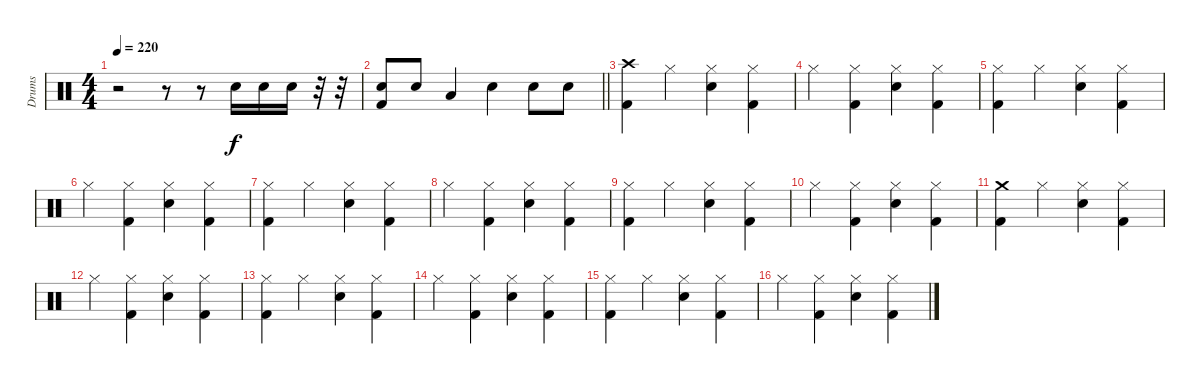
\track ("Drums" "Drums") {instrument percussion}
\staff {score}
\articulation defaults
\ts (4 4)
\tempo 220
\clef neutral
\ks c
r.2{dy f} r.8 r.8 "Electric Snare (hit)".16 "Electric Snare (hit)".16 "Electric Snare (hit)".16 r.32 r.32 |
\barLineRight lightlight
("Electric Snare (hit)" "Kick (hit) 2").8 "Electric Snare (hit)".8 "Low Tom (hit)".4 "Electric Snare (hit)".4 "Electric Snare (hit)".8 "Electric Snare (hit)".8 |
("Crash high (hit)" "Kick (hit) 2").4 "Hi-Hat (closed)".4 ("Hi-Hat (closed)" "Electric Snare (hit)").4 ("Hi-Hat (closed)" "Kick (hit) 2").4 |
"Hi-Hat (closed)".4 ("Hi-Hat (closed)" "Kick (hit) 2").4 ("Hi-Hat (closed)" "Electric Snare (hit)").4 ("Hi-Hat (closed)" "Kick (hit) 2").4 |
("Hi-Hat (closed)" "Kick (hit) 2").4 "Hi-Hat (closed)".4 ("Hi-Hat (closed)" "Electric Snare (hit)").4 ("Hi-Hat (closed)" "Kick (hit) 2").4 |
"Hi-Hat (closed)".4 ("Hi-Hat (closed)" "Kick (hit) 2").4 ("Hi-Hat (closed)" "Electric Snare (hit)").4 ("Hi-Hat (closed)" "Kick (hit) 2").4 |
("Hi-Hat (closed)" "Kick (hit) 2").4 "Hi-Hat (closed)".4 ("Hi-Hat (closed)" "Electric Snare (hit)").4 ("Hi-Hat (closed)" "Kick (hit) 2").4 |
"Hi-Hat (closed)".4 ("Hi-Hat (closed)" "Kick (hit) 2").4 ("Hi-Hat (closed)" "Electric Snare (hit)").4 ("Hi-Hat (closed)" "Kick (hit) 2").4 |
("Hi-Hat (closed)" "Kick (hit) 2").4 "Hi-Hat (closed)".4 ("Hi-Hat (closed)" "Electric Snare (hit)").4 ("Hi-Hat (closed)" "Kick (hit) 2").4 |
"Hi-Hat (closed)".4 ("Hi-Hat (closed)" "Kick (hit) 2").4 ("Hi-Hat (closed)" "Electric Snare (hit)").4 ("Hi-Hat (closed)" "Kick (hit) 2").4 |
("Crash medium (hit)" "Kick (hit) 2").4 "Hi-Hat (closed)".4 ("Hi-Hat (closed)" "Electric Snare (hit)").4 ("Hi-Hat (closed)" "Kick (hit) 2").4 |
"Hi-Hat (closed)".4 ("Hi-Hat (closed)" "Kick (hit) 2").4 ("Hi-Hat (closed)" "Electric Snare (hit)").4 ("Hi-Hat (closed)" "Kick (hit) 2").4 |
("Hi-Hat (closed)" "Kick (hit) 2").4 "Hi-Hat (closed)".4 ("Hi-Hat (closed)" "Electric Snare (hit)").4 ("Hi-Hat (closed)" "Kick (hit) 2").4 |
"Hi-Hat (closed)".4 ("Hi-Hat (closed)" "Kick (hit) 2").4 ("Hi-Hat (closed)" "Electric Snare (hit)").4 ("Hi-Hat (closed)" "Kick (hit) 2").4 |
("Hi-Hat (closed)" "Kick (hit) 2").4 "Hi-Hat (closed)".4 ("Hi-Hat (closed)" "Electric Snare (hit)").4 ("Hi-Hat (closed)" "Kick (hit) 2").4 |
"Hi-Hat (closed)".4 ("Hi-Hat (closed)" "Kick (hit) 2").4 ("Hi-Hat (closed)" "Electric Snare (hit)").4 ("Hi-Hat (closed)" "Kick (hit) 2").4
